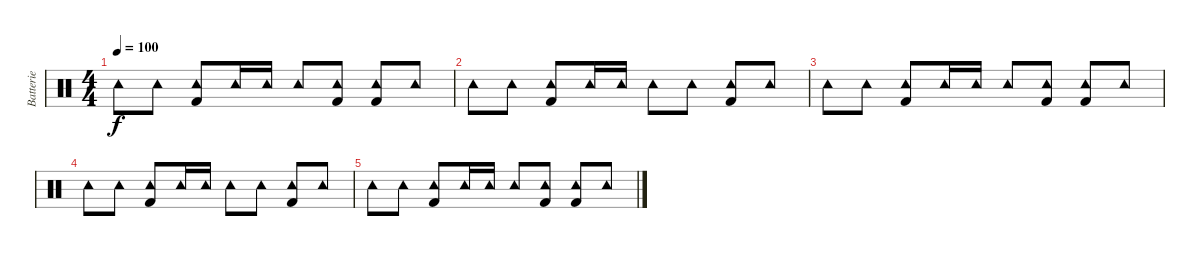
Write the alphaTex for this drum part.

\track ("Batterie" "Batterie") {instrument percussion}
\staff {score}
\articulation defaults
\ts (4 4)
\tempo 100
\clef neutral
\ks c "Tambourine (hit)".8{dy f} "Tambourine (hit)".8
("Tambourine (hit)" "Kick (hit) 2").8 "Tambourine (hit)".16 "Tambourine (hit)".16 "Tambourine (hit)".8 ("Tambourine (hit)" "Kick (hit) 2").8 ("Tambourine (hit)" "Kick (hit) 2").8 "Tambourine (hit)".8 |
"Tambourine (hit)".8 "Tambourine (hit)".8 ("Tambourine (hit)" "Kick (hit) 2").8 "Tambourine (hit)".16 "Tambourine (hit)".16 "Tambourine (hit)".8 "Tambourine (hit)".8 ("Tambourine (hit)" "Kick (hit) 2").8 "Tambourine (hit)".8 |
"Tambourine (hit)".8 "Tambourine (hit)".8 ("Tambourine (hit)" "Kick (hit) 2").8 "Tambourine (hit)".16 "Tambourine (hit)".16 "Tambourine (hit)".8 ("Tambourine (hit)" "Kick (hit) 2").8 ("Tambourine (hit)" "Kick (hit) 2").8 "Tambourine (hit)".8 |
"Tambourine (hit)".8 "Tambourine (hit)".8 ("Tambourine (hit)" "Kick (hit) 2").8 "Tambourine (hit)".16 "Tambourine (hit)".16 "Tambourine (hit)".8 "Tambourine (hit)".8 ("Tambourine (hit)" "Kick (hit) 2").8 "Tambourine (hit)".8 |
"Tambourine (hit)".8 "Tambourine (hit)".8 ("Tambourine (hit)" "Kick (hit) 2").8 "Tambourine (hit)".16 "Tambourine (hit)".16 "Tambourine (hit)".8 ("Tambourine (hit)" "Kick (hit) 2").8 ("Tambourine (hit)" "Kick (hit) 2").8 "Tambourine (hit)".8
